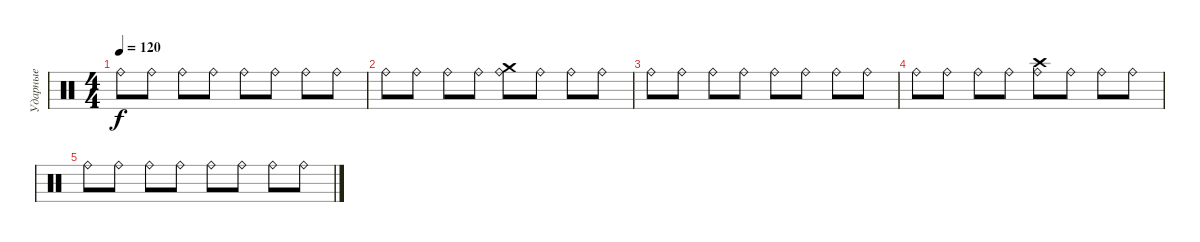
\track ("Ударные" "Ударные") {instrument percussion}
\staff {score}
\articulation defaults
\ts (4 4)
\tempo 120
\clef neutral
\ks c "Ride (bell)".8{dy f} "Ride (bell)".8 "Ride (bell)".8 "Ride (bell)".8 "Ride (bell)".8 "Ride (bell)".8 "Ride (bell)".8 "Ride (bell)".8
|
"Ride (bell)".8 "Ride (bell)".8 "Ride (bell)".8 "Ride (bell)".8 ("Crash medium (hit)" "Ride (bell)").8 "Ride (bell)".8 "Ride (bell)".8 "Ride (bell)".8 |
"Ride (bell)".8 "Ride (bell)".8 "Ride (bell)".8 "Ride (bell)".8 "Ride (bell)".8 "Ride (bell)".8 "Ride (bell)".8 "Ride (bell)".8 |
"Ride (bell)".8 "Ride (bell)".8 "Ride (bell)".8 "Ride (bell)".8 ("Crash high (hit)" "Ride (bell)").8 "Ride (bell)".8 "Ride (bell)".8 "Ride (bell)".8 |
"Ride (bell)".8 "Ride (bell)".8 "Ride (bell)".8 "Ride (bell)".8 "Ride (bell)".8 "Ride (bell)".8 "Ride (bell)".8 "Ride (bell)".8
